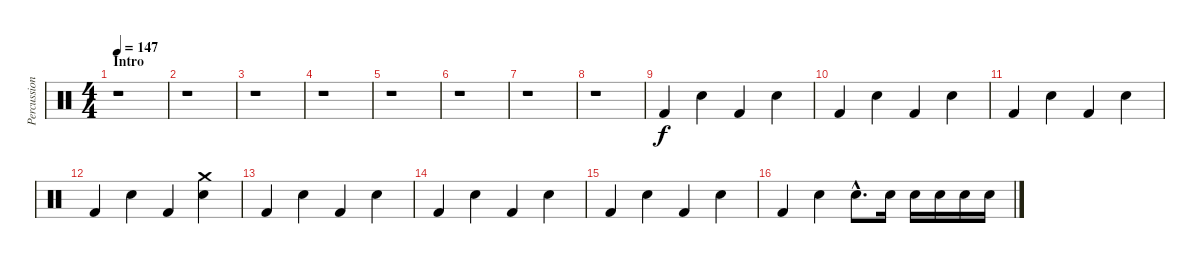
\track ("Percussion" "Percussion") {instrument percussion}
\staff {score}
\articulation defaults
\ts (4 4)
\section ("" "Intro")
\tempo 147
\clef neutral
\ks c
r.1{dy f} |
\section ("" "")
r.1 |
r.1 |
r.1 |
r.1 |
r.1 |
r.1 |
r.1 |
"Kick (hit) 2".4 "Snare (hit) 2".4 "Kick (hit) 2".4 "Snare (hit) 2".4 |
"Kick (hit) 2".4 "Snare (hit) 2".4 "Kick (hit) 2".4 "Snare (hit) 2".4 |
"Kick (hit) 2".4 "Snare (hit) 2".4 "Kick (hit) 2".4 "Snare (hit) 2".4 |
"Kick (hit) 2".4 "Snare (hit) 2".4 "Kick (hit) 2".4 ("Crash medium (hit)" "Snare (hit) 2").4 |
"Kick (hit) 2".4 "Snare (hit) 2".4 "Kick (hit) 2".4 "Snare (hit) 2".4 |
"Kick (hit) 2".4 "Snare (hit) 2".4 "Kick (hit) 2".4 "Snare (hit) 2".4 |
"Kick (hit) 2".4 "Snare (hit) 2".4 "Kick (hit) 2".4 "Snare (hit) 2".4 |
"Kick (hit) 2".4 "Snare (hit) 2".4 "Snare (hit) 2"{hac}.8{d} "Snare (hit) 2".16 "Snare (hit) 2".16 "Snare (hit) 2".16 "Snare (hit) 2".16 "Snare (hit) 2".16
